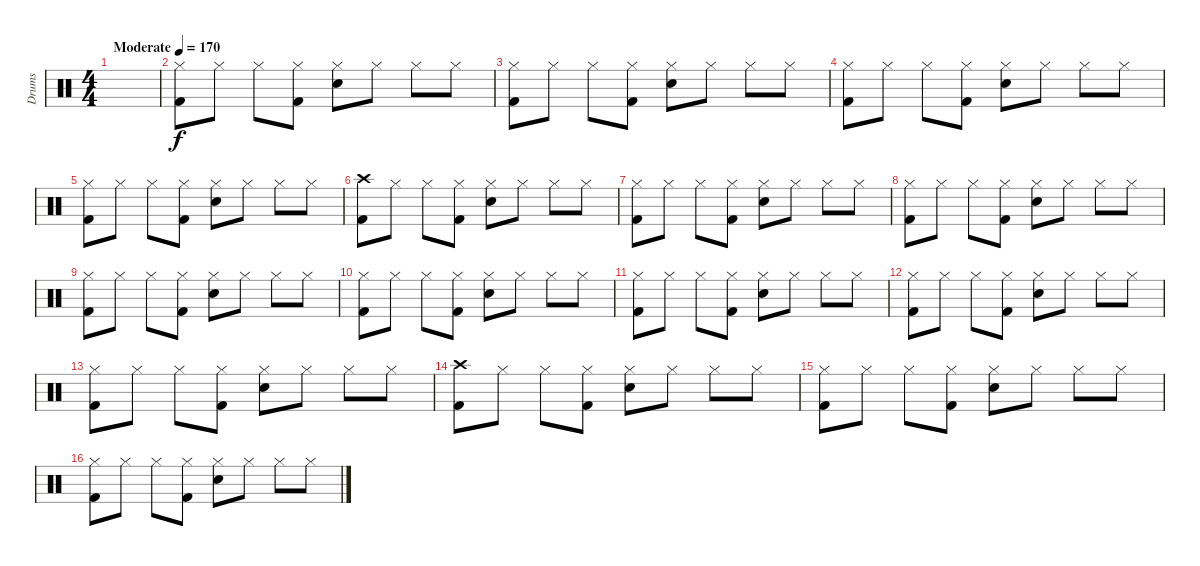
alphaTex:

\track ("Drums" "Drums") {instrument percussion}
\staff {score}
\articulation defaults
\ts (4 4)
\tempo (170 "Moderate")
\clef neutral
\ks c
|
("Hi-Hat (closed)" "Kick (hit) 2").8 "Hi-Hat (closed)".8 "Hi-Hat (closed)".8 ("Hi-Hat (closed)" "Kick (hit) 2").8 ("Hi-Hat (closed)" "Snare (hit) 2").8 "Hi-Hat (closed)".8 "Hi-Hat (closed)".8 "Hi-Hat (closed)".8 |
("Hi-Hat (closed)" "Kick (hit) 2").8 "Hi-Hat (closed)".8 "Hi-Hat (closed)".8 ("Hi-Hat (closed)" "Kick (hit) 2").8 ("Hi-Hat (closed)" "Snare (hit) 2").8 "Hi-Hat (closed)".8 "Hi-Hat (closed)".8 "Hi-Hat (closed)".8 |
("Hi-Hat (closed)" "Kick (hit) 2").8 "Hi-Hat (closed)".8 "Hi-Hat (closed)".8 ("Hi-Hat (closed)" "Kick (hit) 2").8 ("Hi-Hat (closed)" "Snare (hit) 2").8 "Hi-Hat (closed)".8 "Hi-Hat (closed)".8 "Hi-Hat (closed)".8 |
("Hi-Hat (closed)" "Kick (hit) 2").8 "Hi-Hat (closed)".8 "Hi-Hat (closed)".8 ("Hi-Hat (closed)" "Kick (hit) 2").8 ("Hi-Hat (closed)" "Snare (hit) 2").8 "Hi-Hat (closed)".8 "Hi-Hat (closed)".8 "Hi-Hat (closed)".8 |
("Crash high (hit)" "Kick (hit) 2").8 "Hi-Hat (closed)".8 "Hi-Hat (closed)".8 ("Hi-Hat (closed)" "Kick (hit) 2").8 ("Hi-Hat (closed)" "Snare (hit) 2").8 "Hi-Hat (closed)".8 "Hi-Hat (closed)".8 "Hi-Hat (closed)".8 |
("Hi-Hat (closed)" "Kick (hit) 2").8 "Hi-Hat (closed)".8 "Hi-Hat (closed)".8 ("Hi-Hat (closed)" "Kick (hit) 2").8 ("Hi-Hat (closed)" "Snare (hit) 2").8 "Hi-Hat (closed)".8 "Hi-Hat (closed)".8 "Hi-Hat (closed)".8 |
("Hi-Hat (closed)" "Kick (hit) 2").8 "Hi-Hat (closed)".8 "Hi-Hat (closed)".8 ("Hi-Hat (closed)" "Kick (hit) 2").8 ("Hi-Hat (closed)" "Snare (hit) 2").8 "Hi-Hat (closed)".8 "Hi-Hat (closed)".8 "Hi-Hat (closed)".8 |
("Hi-Hat (closed)" "Kick (hit) 2").8 "Hi-Hat (closed)".8 "Hi-Hat (closed)".8 ("Hi-Hat (closed)" "Kick (hit) 2").8 ("Hi-Hat (closed)" "Snare (hit) 2").8 "Hi-Hat (closed)".8 "Hi-Hat (closed)".8 "Hi-Hat (closed)".8 |
("Hi-Hat (closed)" "Kick (hit) 2").8 "Hi-Hat (closed)".8 "Hi-Hat (closed)".8 ("Hi-Hat (closed)" "Kick (hit) 2").8 ("Hi-Hat (closed)" "Snare (hit) 2").8 "Hi-Hat (closed)".8 "Hi-Hat (closed)".8 "Hi-Hat (closed)".8 |
("Hi-Hat (closed)" "Kick (hit) 2").8 "Hi-Hat (closed)".8 "Hi-Hat (closed)".8 ("Hi-Hat (closed)" "Kick (hit) 2").8 ("Hi-Hat (closed)" "Snare (hit) 2").8 "Hi-Hat (closed)".8 "Hi-Hat (closed)".8 "Hi-Hat (closed)".8 |
("Hi-Hat (closed)" "Kick (hit) 2").8 "Hi-Hat (closed)".8 "Hi-Hat (closed)".8 ("Hi-Hat (closed)" "Kick (hit) 2").8 ("Hi-Hat (closed)" "Snare (hit) 2").8 "Hi-Hat (closed)".8 "Hi-Hat (closed)".8 "Hi-Hat (closed)".8 |
("Hi-Hat (closed)" "Kick (hit) 2").8 "Hi-Hat (closed)".8 "Hi-Hat (closed)".8 ("Hi-Hat (closed)" "Kick (hit) 2").8 ("Hi-Hat (closed)" "Snare (hit) 2").8 "Hi-Hat (closed)".8 "Hi-Hat (closed)".8 "Hi-Hat (closed)".8 |
("Crash high (hit)" "Kick (hit) 2").8 "Hi-Hat (closed)".8 "Hi-Hat (closed)".8 ("Hi-Hat (closed)" "Kick (hit) 2").8 ("Hi-Hat (closed)" "Snare (hit) 2").8 "Hi-Hat (closed)".8 "Hi-Hat (closed)".8 "Hi-Hat (closed)".8 |
("Hi-Hat (closed)" "Kick (hit) 2").8 "Hi-Hat (closed)".8 "Hi-Hat (closed)".8 ("Hi-Hat (closed)" "Kick (hit) 2").8 ("Hi-Hat (closed)" "Snare (hit) 2").8 "Hi-Hat (closed)".8 "Hi-Hat (closed)".8 "Hi-Hat (closed)".8 |
("Hi-Hat (closed)" "Kick (hit) 2").8 "Hi-Hat (closed)".8 "Hi-Hat (closed)".8 ("Hi-Hat (closed)" "Kick (hit) 2").8 ("Hi-Hat (closed)" "Snare (hit) 2").8 "Hi-Hat (closed)".8 "Hi-Hat (closed)".8 "Hi-Hat (closed)".8
